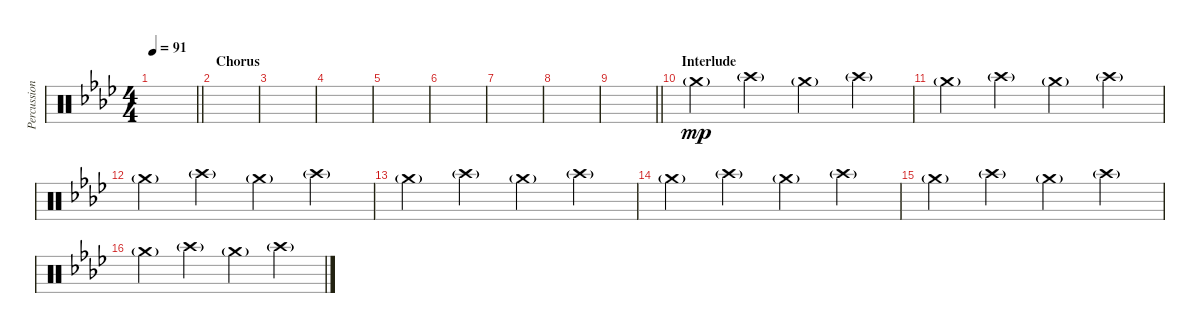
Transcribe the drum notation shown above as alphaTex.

\track ("Percussion" "Percussion") {instrument percussion}
\staff {score}
\articulation defaults
\ts (4 4)
\tempo 91
\clef neutral
\barLineRight lightlight
\ks fminor
|
\section ("" "Chorus")
|
|
|
|
|
|
|
\barLineRight lightlight
|
\section ("" "Interlude")
"Crash medium (hit)"{g}.4{dy mp volume 6} "Crash high (hit)"{g}.4 "Crash medium (hit)"{g}.4 "Crash high (hit)"{g}.4 |
"Crash medium (hit)"{g}.4 "Crash high (hit)"{g}.4 "Crash medium (hit)"{g}.4 "Crash high (hit)"{g}.4 |
"Crash medium (hit)"{g}.4 "Crash high (hit)"{g}.4 "Crash medium (hit)"{g}.4 "Crash high (hit)"{g}.4 |
"Crash medium (hit)"{g}.4 "Crash high (hit)"{g}.4 "Crash medium (hit)"{g}.4 "Crash high (hit)"{g}.4 |
"Crash medium (hit)"{g}.4{volume 0} "Crash high (hit)"{g}.4 "Crash medium (hit)"{g}.4 "Crash high (hit)"{g}.4 |
"Crash medium (hit)"{g}.4 "Crash high (hit)"{g}.4 "Crash medium (hit)"{g}.4 "Crash high (hit)"{g}.4 |
"Crash medium (hit)"{g}.4 "Crash high (hit)"{g}.4 "Crash medium (hit)"{g}.4 "Crash high (hit)"{g}.4
